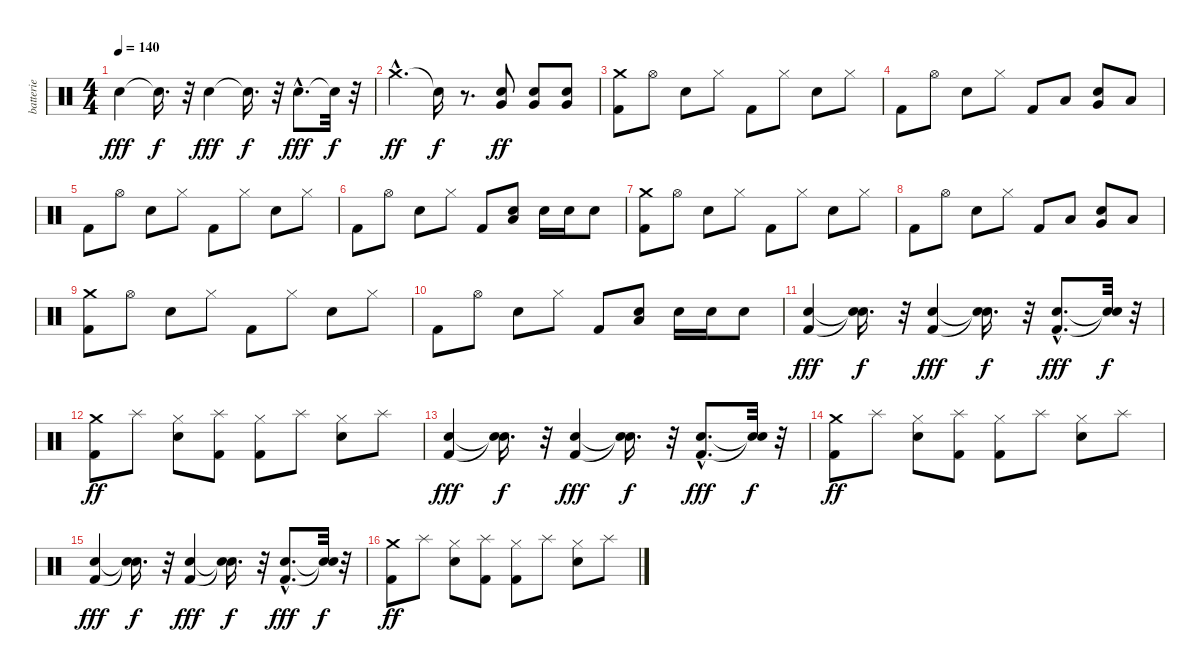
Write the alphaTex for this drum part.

\track ("batterie" "batterie") {instrument percussion}
\staff {score}
\articulation defaults
\ts (4 4)
\tempo 140
\clef neutral
\ks c "Electric Snare (hit)".4{dy fff} "Snare (hit)"{t}.16{d dy f}
r.32 "Electric Snare (hit)".4{dy fff} "Snare (hit)"{t}.16{d dy f} r.32 "Electric Snare (hit)"{hac}.8{d dy fff} "Snare (hit)"{t}.32{dy f} r.32 |
"Crash medium (hit)"{hac}.4{d dy ff} "Snare (hit)"{t}.16{dy f} r.8{d} ("Electric Snare (hit)" "Very Low Tom (hit)").8{dy ff} ("Electric Snare (hit)" "Very Low Tom (hit)").8 ("Electric Snare (hit)" "Very Low Tom (hit)").8 |
("Kick (hit) 2" "Crash medium (hit)").8 "Hi-Hat (open)".8 "Electric Snare (hit)".8 "Hi-Hat (closed)".8 "Kick (hit) 2".8 "Hi-Hat (closed)".8 "Electric Snare (hit)".8 "Hi-Hat (closed)".8 |
"Kick (hit) 2".8 "Hi-Hat (open)".8 "Electric Snare (hit)".8 "Hi-Hat (closed)".8 "Kick (hit) 2".8 "Low Tom (hit)".8 ("Electric Snare (hit)" "Very Low Tom (hit)").8 "Low Floor Tom (hit)".8 |
"Kick (hit) 2".8 "Hi-Hat (open)".8 "Electric Snare (hit)".8 "Hi-Hat (closed)".8 "Kick (hit) 2".8 "Hi-Hat (closed)".8 "Electric Snare (hit)".8 "Hi-Hat (closed)".8 |
"Kick (hit) 2".8 "Hi-Hat (open)".8 "Electric Snare (hit)".8 "Hi-Hat (closed)".8 "Kick (hit) 2".8 ("Electric Snare (hit)" "Low Tom (hit)").8 "Electric Snare (hit)".16 "Electric Snare (hit)".16 "Electric Snare (hit)".8 |
("Kick (hit) 2" "Crash medium (hit)").8 "Hi-Hat (open)".8 "Electric Snare (hit)".8 "Hi-Hat (closed)".8 "Kick (hit) 2".8 "Hi-Hat (closed)".8 "Electric Snare (hit)".8 "Hi-Hat (closed)".8 |
"Kick (hit) 2".8 "Hi-Hat (open)".8 "Electric Snare (hit)".8 "Hi-Hat (closed)".8 "Kick (hit) 2".8 "Low Tom (hit)".8 ("Electric Snare (hit)" "Very Low Tom (hit)").8 "Low Floor Tom (hit)".8 |
("Kick (hit) 2" "Crash medium (hit)").8 "Hi-Hat (open)".8 "Electric Snare (hit)".8 "Hi-Hat (closed)".8 "Kick (hit) 2".8 "Hi-Hat (closed)".8 "Electric Snare (hit)".8 "Hi-Hat (closed)".8 |
"Kick (hit) 2".8 "Hi-Hat (open)".8 "Electric Snare (hit)".8 "Hi-Hat (closed)".8 "Kick (hit) 2".8 ("Electric Snare (hit)" "Low Tom (hit)").8 "Electric Snare (hit)".16 "Electric Snare (hit)".16 "Electric Snare (hit)".8 |
("Kick (hit) 2" "Electric Snare (hit)").4{dy fff} ("Snare (hit)"{t} "Snare (hit)"{t}).16{d dy f} r.32 ("Kick (hit) 2" "Electric Snare (hit)").4{dy fff} ("Snare (hit)"{t} "Snare (hit)"{t}).16{d dy f} r.32 ("Kick (hit) 2"{hac} "Electric Snare (hit)"{hac}).8{d dy fff} ("Snare (hit)"{t} "Snare (hit)"{t}).32{dy f} r.32 |
("Kick (hit) 2" "Crash medium (hit)").8{dy ff} "Splash (hit)".8 ("Electric Snare (hit)" "Hi-Hat (closed)").8 ("Kick (hit) 2" "Splash (hit)").8 ("Kick (hit) 2" "Hi-Hat (closed)").8 "Splash (hit)".8 ("Electric Snare (hit)" "Hi-Hat (closed)").8 "Splash (hit)".8 |
("Kick (hit) 2" "Electric Snare (hit)").4{dy fff} ("Snare (hit)"{t} "Snare (hit)"{t}).16{d dy f} r.32 ("Kick (hit) 2" "Electric Snare (hit)").4{dy fff} ("Snare (hit)"{t} "Snare (hit)"{t}).16{d dy f} r.32 ("Kick (hit) 2"{hac} "Electric Snare (hit)"{hac}).8{d dy fff} ("Snare (hit)"{t} "Snare (hit)"{t}).32{dy f} r.32 |
("Kick (hit) 2" "Crash medium (hit)").8{dy ff} "Splash (hit)".8 ("Electric Snare (hit)" "Hi-Hat (closed)").8 ("Kick (hit) 2" "Splash (hit)").8 ("Kick (hit) 2" "Hi-Hat (closed)").8 "Splash (hit)".8 ("Electric Snare (hit)" "Hi-Hat (closed)").8 "Splash (hit)".8 |
("Kick (hit) 2" "Electric Snare (hit)").4{dy fff} ("Snare (hit)"{t} "Snare (hit)"{t}).16{d dy f} r.32 ("Kick (hit) 2" "Electric Snare (hit)").4{dy fff} ("Snare (hit)"{t} "Snare (hit)"{t}).16{d dy f} r.32 ("Kick (hit) 2"{hac} "Electric Snare (hit)"{hac}).8{d dy fff} ("Snare (hit)"{t} "Snare (hit)"{t}).32{dy f} r.32 |
("Kick (hit) 2" "Crash medium (hit)").8{dy ff} "Splash (hit)".8 ("Electric Snare (hit)" "Hi-Hat (closed)").8 ("Kick (hit) 2" "Splash (hit)").8 ("Kick (hit) 2" "Hi-Hat (closed)").8 "Splash (hit)".8 ("Electric Snare (hit)" "Hi-Hat (closed)").8 "Splash (hit)".8
